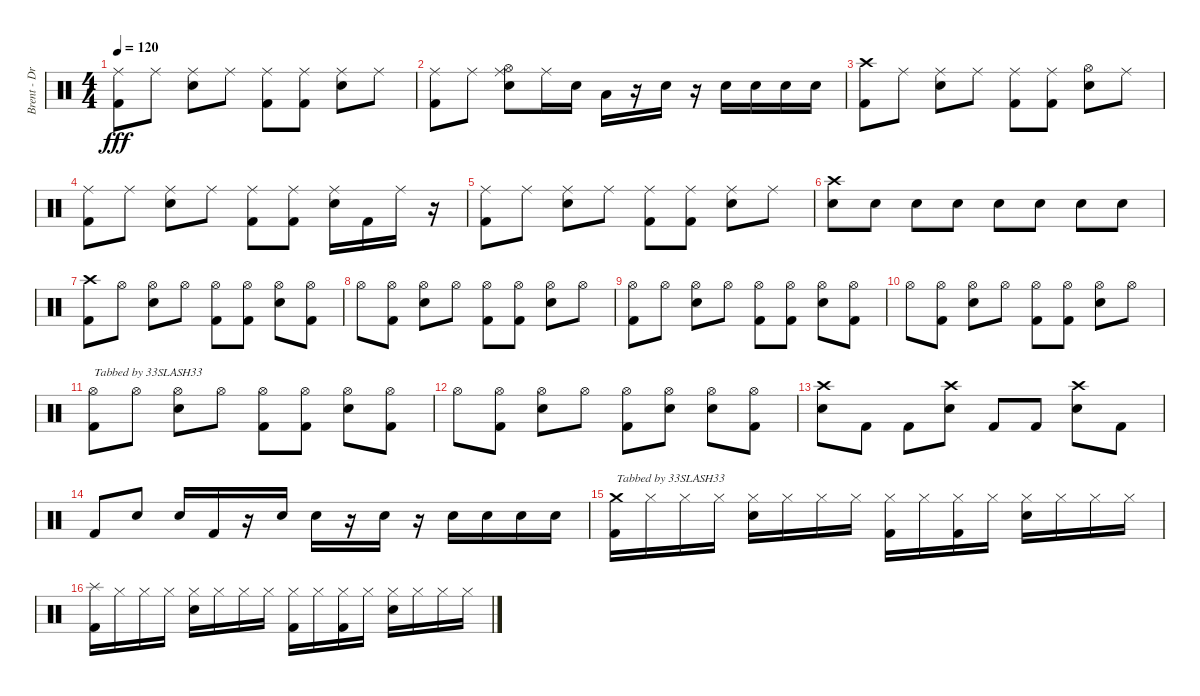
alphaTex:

\track ("Brent - Drums" "Brent - Dr") {instrument percussion}
\staff {score}
\articulation defaults
\ts (4 4)
\tempo 120
\clef neutral
\ks c
("Ride (middle)" "Kick (hit) 2").8{dy fff} "Ride (middle)".8 ("Ride (middle)" "Snare (hit) 2").8 "Ride (middle)".8 ("Ride (middle)" "Kick (hit) 2").8 ("Ride (middle)" "Kick (hit) 2").8 ("Ride (middle)" "Snare (hit) 2").8 "Ride (middle)".8 |
("Ride (middle)" "Kick (hit) 2").8 "Ride (middle)".8 ("Ride (middle)" "Snare (hit) 2" "Hi-Hat (open)").8 "Ride (middle)".16 "Snare (hit) 2".16 "Low Tom (hit)".16 r.16 "Snare (hit) 2".16 r.16 "Snare (hit) 2".16 "Snare (hit) 2".16 "Snare (hit) 2".16 "Snare (hit) 2".16 |
("Crash high (hit)" "Kick (hit) 2").8 "Ride (middle)".8 ("Ride (middle)" "Snare (hit) 2").8 "Ride (middle)".8 ("Ride (middle)" "Kick (hit) 2").8 ("Ride (middle)" "Kick (hit) 2").8 ("Hi-Hat (open)" "Snare (hit) 2").8 "Ride (middle)".8 |
("Ride (middle)" "Kick (hit) 2").8 "Ride (middle)".8 ("Ride (middle)" "Snare (hit) 2").8 "Ride (middle)".8 ("Ride (middle)" "Kick (hit) 2").8 ("Ride (middle)" "Kick (hit) 2").8 ("Ride (middle)" "Snare (hit) 2").16 "Kick (hit) 2".16 "Ride (middle)".16 r.16 |
("Ride (middle)" "Kick (hit) 2").8 "Ride (middle)".8 ("Ride (middle)" "Snare (hit) 2").8 "Ride (middle)".8 ("Ride (middle)" "Kick (hit) 2").8 ("Ride (middle)" "Kick (hit) 2").8 ("Ride (middle)" "Snare (hit) 2").8 "Ride (middle)".8 |
("Crash high (hit)" "Snare (hit) 2").8 "Snare (hit) 2".8 "Snare (hit) 2".8 "Snare (hit) 2".8 "Snare (hit) 2".8 "Snare (hit) 2".8 "Snare (hit) 2".8 "Snare (hit) 2".8 |
("Crash high (hit)" "Kick (hit) 2").8 "Hi-Hat (open)".8 ("Hi-Hat (open)" "Snare (hit) 2").8 "Hi-Hat (open)".8 ("Hi-Hat (open)" "Kick (hit) 2").8 ("Hi-Hat (open)" "Kick (hit) 2").8 ("Hi-Hat (open)" "Snare (hit) 2").8 ("Hi-Hat (open)" "Kick (hit) 2").8 |
"Hi-Hat (open)".8 ("Hi-Hat (open)" "Kick (hit) 2").8 ("Hi-Hat (open)" "Snare (hit) 2").8 "Hi-Hat (open)".8 ("Hi-Hat (open)" "Kick (hit) 2").8 ("Hi-Hat (open)" "Kick (hit) 2").8 ("Hi-Hat (open)" "Snare (hit) 2").8 "Hi-Hat (open)".8 |
("Hi-Hat (open)" "Kick (hit) 2").8 "Hi-Hat (open)".8 ("Hi-Hat (open)" "Snare (hit) 2").8 "Hi-Hat (open)".8 ("Hi-Hat (open)" "Kick (hit) 2").8 ("Hi-Hat (open)" "Kick (hit) 2").8 ("Hi-Hat (open)" "Snare (hit) 2").8 ("Hi-Hat (open)" "Kick (hit) 2").8 |
"Hi-Hat (open)".8 ("Hi-Hat (open)" "Kick (hit) 2").8 ("Hi-Hat (open)" "Snare (hit) 2").8 "Hi-Hat (open)".8 ("Hi-Hat (open)" "Kick (hit) 2").8 ("Hi-Hat (open)" "Kick (hit) 2").8 ("Hi-Hat (open)" "Snare (hit) 2").8 "Hi-Hat (open)".8 |
("Hi-Hat (open)" "Kick (hit) 2").8{txt "Tabbed by 33SLASH33"} "Hi-Hat (open)".8 ("Hi-Hat (open)" "Snare (hit) 2").8 "Hi-Hat (open)".8 ("Hi-Hat (open)" "Kick (hit) 2").8 ("Hi-Hat (open)" "Kick (hit) 2").8 ("Hi-Hat (open)" "Snare (hit) 2").8 ("Hi-Hat (open)" "Kick (hit) 2").8 |
"Hi-Hat (open)".8 ("Hi-Hat (open)" "Kick (hit) 2").8 ("Hi-Hat (open)" "Snare (hit) 2").8 "Hi-Hat (open)".8 ("Hi-Hat (open)" "Kick (hit) 2").8 ("Hi-Hat (open)" "Snare (hit) 2").8 ("Hi-Hat (open)" "Snare (hit) 2").8 ("Hi-Hat (open)" "Kick (hit) 2").8 |
("Crash high (hit)" "Snare (hit) 2").8 "Kick (hit) 2".8 "Kick (hit) 2".8 ("Crash high (hit)" "Snare (hit) 2").8 "Kick (hit) 2".8 "Kick (hit) 2".8 ("Crash high (hit)" "Snare (hit) 2").8 "Kick (hit) 2".8 |
"Kick (hit) 2".8 "Snare (hit) 2".8 "Snare (hit) 2".16 "Kick (hit) 2".16 r.16 "Snare (hit) 2".16 "Snare (hit) 2".16 r.16 "Snare (hit) 2".16 r.16 "Snare (hit) 2".16 "Snare (hit) 2".16 "Snare (hit) 2".16 "Snare (hit) 2".16 |
("Crash medium (hit)" "Kick (hit) 2").16{txt "Tabbed by 33SLASH33"} "Hi-Hat (closed)".16 "Hi-Hat (closed)".16 "Hi-Hat (closed)".16 ("Hi-Hat (closed)" "Snare (hit) 2").16 "Hi-Hat (closed)".16 "Hi-Hat (closed)".16 "Hi-Hat (closed)".16 ("Hi-Hat (closed)" "Kick (hit) 2").16 "Hi-Hat (closed)".16 ("Hi-Hat (closed)" "Kick (hit) 2").16 "Hi-Hat (closed)".16 ("Hi-Hat (closed)" "Snare (hit) 2").16 "Hi-Hat (closed)".16 "Hi-Hat (closed)".16 "Hi-Hat (closed)".16 |
("Splash (hit)" "Kick (hit) 2").16 "Hi-Hat (closed)".16 "Hi-Hat (closed)".16 "Hi-Hat (closed)".16 ("Hi-Hat (closed)" "Snare (hit) 2").16 "Hi-Hat (closed)".16 "Hi-Hat (closed)".16 "Hi-Hat (closed)".16 ("Hi-Hat (closed)" "Kick (hit) 2").16 "Hi-Hat (closed)".16 ("Hi-Hat (closed)" "Kick (hit) 2").16 "Hi-Hat (closed)".16 ("Hi-Hat (closed)" "Snare (hit) 2").16 "Hi-Hat (closed)".16 "Hi-Hat (closed)".16 "Hi-Hat (closed)".16
